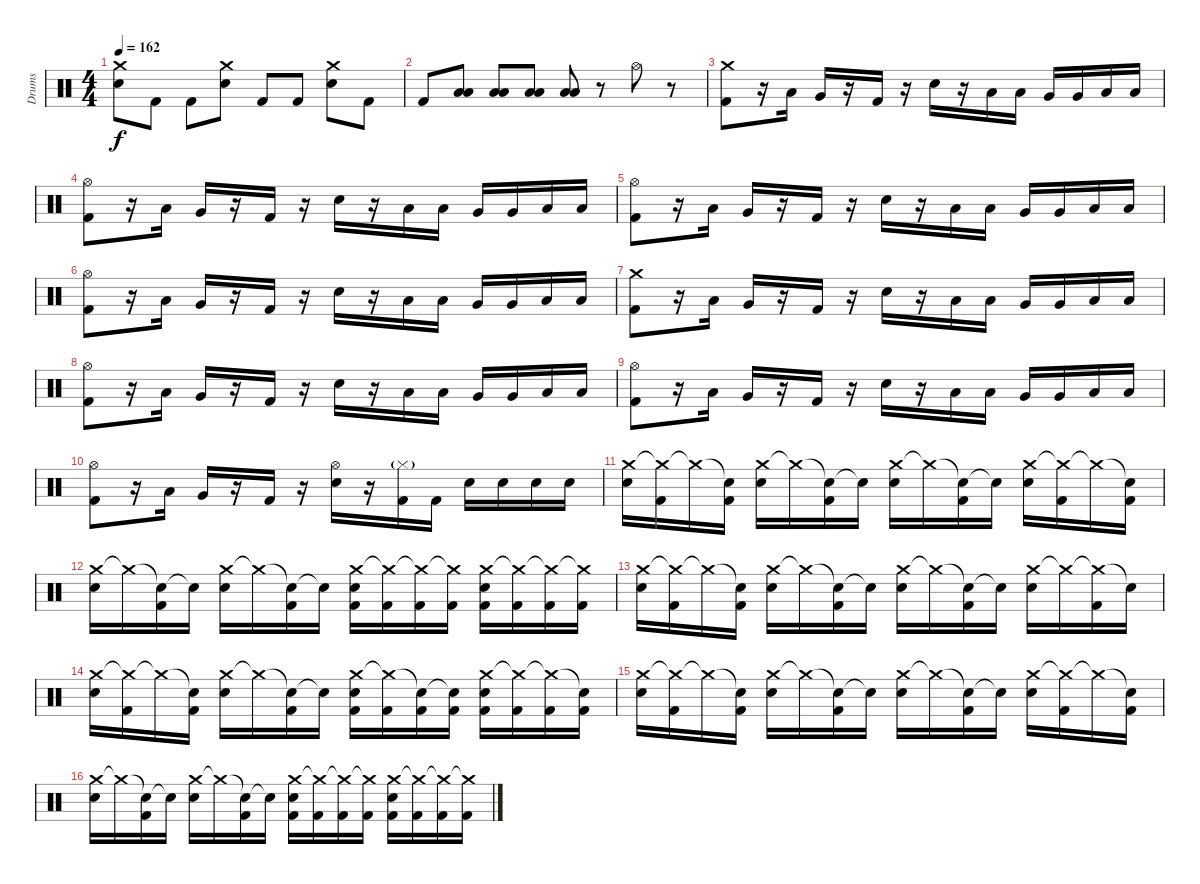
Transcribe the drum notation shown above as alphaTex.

\track ("Drums" "Drums") {instrument percussion}
\staff {score}
\articulation defaults
\ts (4 4)
\tempo 162
\clef neutral
\ks c
("Crash medium (hit)" "Electric Snare (hit)").8{dy f} "Kick (hit) 2".8 "Kick (hit) 2".8 ("Crash medium (hit)" "Electric Snare (hit)").8 "Kick (hit) 2".8 "Kick (hit) 2".8 ("Crash medium (hit)" "Electric Snare (hit)").8 "Kick (hit) 2".8 |
"Kick (hit) 2".8 ("Low Tom (hit)" "Low Floor Tom (hit)").8 ("Low Tom (hit)" "Low Floor Tom (hit)").8 ("Low Tom (hit)" "Low Floor Tom (hit)").8 ("Low Tom (hit)" "Low Floor Tom (hit)").8 r.8 "Hi-Hat (open)".8 r.8 |
("Crash medium (hit)" "Kick (hit) 2").8 r.16 "Low Tom (hit)".16 "Very Low Tom (hit)".16 r.16 "Kick (hit) 2".16 r.16 "Electric Snare (hit)".16 r.16 "Low Tom (hit)".16 "Low Tom (hit)".16 "Very Low Tom (hit)".16 "Very Low Tom (hit)".16 "Low Floor Tom (hit)".16 "Low Floor Tom (hit)".16 |
("Hi-Hat (open)" "Kick (hit) 2").8 r.16 "Low Tom (hit)".16 "Very Low Tom (hit)".16 r.16 "Kick (hit) 2".16 r.16 "Electric Snare (hit)".16 r.16 "Low Tom (hit)".16 "Low Tom (hit)".16 "Very Low Tom (hit)".16 "Very Low Tom (hit)".16 "Low Floor Tom (hit)".16 "Low Floor Tom (hit)".16 |
("Hi-Hat (open)" "Kick (hit) 2").8 r.16 "Low Tom (hit)".16 "Very Low Tom (hit)".16 r.16 "Kick (hit) 2".16 r.16 "Electric Snare (hit)".16 r.16 "Low Tom (hit)".16 "Low Tom (hit)".16 "Very Low Tom (hit)".16 "Very Low Tom (hit)".16 "Low Floor Tom (hit)".16 "Low Floor Tom (hit)".16 |
("Hi-Hat (open)" "Kick (hit) 2").8 r.16 "Low Tom (hit)".16 "Very Low Tom (hit)".16 r.16 "Kick (hit) 2".16 r.16 "Electric Snare (hit)".16 r.16 "Low Tom (hit)".16 "Low Tom (hit)".16 "Very Low Tom (hit)".16 "Very Low Tom (hit)".16 "Low Floor Tom (hit)".16 "Low Floor Tom (hit)".16 |
("Crash medium (hit)" "Kick (hit) 2").8 r.16 "Low Tom (hit)".16 "Very Low Tom (hit)".16 r.16 "Kick (hit) 2".16 r.16 "Electric Snare (hit)".16 r.16 "Low Tom (hit)".16 "Low Tom (hit)".16 "Very Low Tom (hit)".16 "Very Low Tom (hit)".16 "Low Floor Tom (hit)".16 "Low Floor Tom (hit)".16 |
("Hi-Hat (open)" "Kick (hit) 2").8 r.16 "Low Tom (hit)".16 "Very Low Tom (hit)".16 r.16 "Kick (hit) 2".16 r.16 "Electric Snare (hit)".16 r.16 "Low Tom (hit)".16 "Low Tom (hit)".16 "Very Low Tom (hit)".16 "Very Low Tom (hit)".16 "Low Floor Tom (hit)".16 "Low Floor Tom (hit)".16 |
("Hi-Hat (open)" "Kick (hit) 2").8 r.16 "Low Tom (hit)".16 "Very Low Tom (hit)".16 r.16 "Kick (hit) 2".16 r.16 "Electric Snare (hit)".16 r.16 "Low Tom (hit)".16 "Low Tom (hit)".16 "Very Low Tom (hit)".16 "Very Low Tom (hit)".16 "Low Floor Tom (hit)".16 "Low Floor Tom (hit)".16 |
("Hi-Hat (open)" "Kick (hit) 2").8 r.16 "Low Tom (hit)".16 "Very Low Tom (hit)".16 r.16 "Kick (hit) 2".16 r.16 ("Hi-Hat (open)" "Electric Snare (hit)").16 r.16 ("Hi-Hat (closed)"{g} "Kick (hit) 2").16 "Kick (hit) 2".16 "Electric Snare (hit)".16 "Electric Snare (hit)".16 "Electric Snare (hit)".16 "Electric Snare (hit)".16 |
("Crash medium (hit)" "Electric Snare (hit)").16 ("Crash medium (hit)"{t} "Kick (hit) 2").16 "Crash medium (hit)"{t}.16 ("Snare (hit)"{t} "Kick (hit) 2").16 ("Crash medium (hit)" "Electric Snare (hit)").16 "Crash medium (hit)"{t}.16 ("Snare (hit)"{t} "Kick (hit) 2").16 "Snare (hit)"{t}.16 ("Crash medium (hit)" "Electric Snare (hit)").16 "Crash medium (hit)"{t}.16 ("Snare (hit)"{t} "Kick (hit) 2").16 "Snare (hit)"{t}.16 ("Crash medium (hit)" "Electric Snare (hit)").16 ("Crash medium (hit)"{t} "Kick (hit) 2").16 "Crash medium (hit)"{t}.16 ("Snare (hit)"{t} "Kick (hit) 2").16 |
("Crash medium (hit)" "Electric Snare (hit)").16 "Crash medium (hit)"{t}.16 ("Snare (hit)"{t} "Kick (hit) 2").16 "Snare (hit)"{t}.16 ("Crash medium (hit)" "Electric Snare (hit)").16 "Crash medium (hit)"{t}.16 ("Snare (hit)"{t} "Kick (hit) 2").16 "Snare (hit)"{t}.16 ("Crash medium (hit)" "Electric Snare (hit)" "Kick (hit) 2").16 ("Crash medium (hit)"{t} "Kick (hit) 2").16 ("Crash medium (hit)"{t} "Kick (hit) 2").16 ("Crash medium (hit)"{t} "Kick (hit) 2").16 ("Crash medium (hit)" "Electric Snare (hit)" "Kick (hit) 2").16 ("Crash medium (hit)"{t} "Kick (hit) 2").16 ("Crash medium (hit)"{t} "Kick (hit) 2").16 ("Crash medium (hit)"{t} "Kick (hit) 2").16 |
("Crash medium (hit)" "Electric Snare (hit)").16 ("Crash medium (hit)"{t} "Kick (hit) 2").16 "Crash medium (hit)"{t}.16 ("Snare (hit)"{t} "Kick (hit) 2").16 ("Crash medium (hit)" "Electric Snare (hit)").16 "Crash medium (hit)"{t}.16 ("Snare (hit)"{t} "Kick (hit) 2").16 "Snare (hit)"{t}.16 ("Crash medium (hit)" "Electric Snare (hit)").16 "Crash medium (hit)"{t}.16 ("Snare (hit)"{t} "Kick (hit) 2").16 "Snare (hit)"{t}.16 ("Crash medium (hit)" "Electric Snare (hit)").16 "Crash medium (hit)"{t}.16 ("Crash medium (hit)"{t} "Kick (hit) 2").16 "Snare (hit)"{t}.16 |
("Crash medium (hit)" "Electric Snare (hit)").16 ("Crash medium (hit)"{t} "Kick (hit) 2").16 "Crash medium (hit)"{t}.16 ("Snare (hit)"{t} "Kick (hit) 2").16 ("Crash medium (hit)" "Electric Snare (hit)").16 "Crash medium (hit)"{t}.16 ("Snare (hit)"{t} "Kick (hit) 2").16 "Snare (hit)"{t}.16 ("Crash medium (hit)" "Electric Snare (hit)" "Kick (hit) 2").16 ("Crash medium (hit)"{t} "Kick (hit) 2").16 ("Snare (hit)"{t} "Kick (hit) 2").16 ("Snare (hit)"{t} "Kick (hit) 2").16 ("Crash medium (hit)" "Electric Snare (hit)" "Kick (hit) 2").16 ("Crash medium (hit)"{t} "Kick (hit) 2").16 ("Crash medium (hit)"{t} "Kick (hit) 2").16 ("Snare (hit)"{t} "Kick (hit) 2").16 |
("Crash medium (hit)" "Electric Snare (hit)").16 ("Crash medium (hit)"{t} "Kick (hit) 2").16 "Crash medium (hit)"{t}.16 ("Snare (hit)"{t} "Kick (hit) 2").16 ("Crash medium (hit)" "Electric Snare (hit)").16 "Crash medium (hit)"{t}.16 ("Snare (hit)"{t} "Kick (hit) 2").16 "Snare (hit)"{t}.16 ("Crash medium (hit)" "Electric Snare (hit)").16 "Crash medium (hit)"{t}.16 ("Snare (hit)"{t} "Kick (hit) 2").16 "Snare (hit)"{t}.16 ("Crash medium (hit)" "Electric Snare (hit)").16 ("Crash medium (hit)"{t} "Kick (hit) 2").16 "Crash medium (hit)"{t}.16 ("Snare (hit)"{t} "Kick (hit) 2").16 |
("Crash medium (hit)" "Electric Snare (hit)").16 "Crash medium (hit)"{t}.16 ("Snare (hit)"{t} "Kick (hit) 2").16 "Snare (hit)"{t}.16 ("Crash medium (hit)" "Electric Snare (hit)").16 "Crash medium (hit)"{t}.16 ("Snare (hit)"{t} "Kick (hit) 2").16 "Snare (hit)"{t}.16 ("Crash medium (hit)" "Electric Snare (hit)" "Kick (hit) 2").16 ("Crash medium (hit)"{t} "Kick (hit) 2").16 ("Crash medium (hit)"{t} "Kick (hit) 2").16 ("Crash medium (hit)"{t} "Kick (hit) 2").16 ("Crash medium (hit)" "Electric Snare (hit)" "Kick (hit) 2").16 ("Crash medium (hit)"{t} "Kick (hit) 2").16 ("Crash medium (hit)"{t} "Kick (hit) 2").16 ("Crash medium (hit)"{t} "Kick (hit) 2").16
